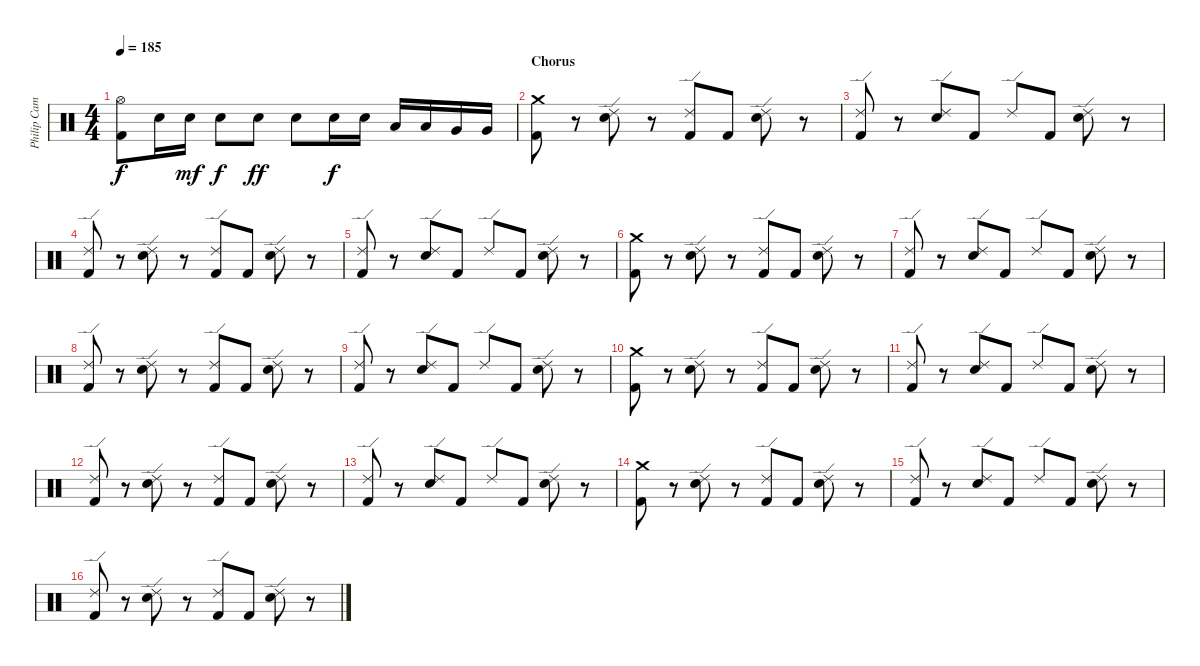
\track ("Philip Campbell" "Philip Cam") {instrument percussion}
\staff {score}
\articulation defaults
\ts (4 4)
\tempo 185
\clef neutral
\ks c
("Hi-Hat (open)" "Kick (hit) 2").8{dy f} "Electric Snare (hit)".16 "Electric Snare (hit)".16{dy mf} "Electric Snare (hit)".8{dy f} "Electric Snare (hit)".8{dy ff} "Electric Snare (hit)".8 "Electric Snare (hit)".16{dy f} "Electric Snare (hit)".16 "Low Tom (hit)".16 "Low Tom (hit)".16 "Very Low Tom (hit)".16 "Very Low Tom (hit)".16 |
\section ("" "Chorus")
("Crash medium (hit)" "Kick (hit) 2").8 r.8 ("Ride (edge) 2" "Electric Snare (hit)").8 r.8 ("Ride (edge) 2" "Kick (hit) 2").8 "Kick (hit) 2".8 ("Ride (edge) 2" "Electric Snare (hit)").8 r.8 |
("Ride (edge) 2" "Kick (hit) 2").8 r.8 ("Ride (edge) 2" "Electric Snare (hit)").8 "Kick (hit) 2".8 "Ride (edge) 2".8 "Kick (hit) 2".8 ("Ride (edge) 2" "Electric Snare (hit)").8 r.8 |
("Ride (edge) 2" "Kick (hit) 2").8 r.8 ("Ride (edge) 2" "Electric Snare (hit)").8 r.8 ("Ride (edge) 2" "Kick (hit) 2").8 "Kick (hit) 2".8 ("Ride (edge) 2" "Electric Snare (hit)").8 r.8 |
("Ride (edge) 2" "Kick (hit) 2").8 r.8 ("Ride (edge) 2" "Electric Snare (hit)").8 "Kick (hit) 2".8 "Ride (edge) 2".8 "Kick (hit) 2".8 ("Ride (edge) 2" "Electric Snare (hit)").8 r.8 |
("Crash medium (hit)" "Kick (hit) 2").8 r.8 ("Ride (edge) 2" "Electric Snare (hit)").8 r.8 ("Ride (edge) 2" "Kick (hit) 2").8 "Kick (hit) 2".8 ("Ride (edge) 2" "Electric Snare (hit)").8 r.8 |
("Ride (edge) 2" "Kick (hit) 2").8 r.8 ("Ride (edge) 2" "Electric Snare (hit)").8 "Kick (hit) 2".8 "Ride (edge) 2".8 "Kick (hit) 2".8 ("Ride (edge) 2" "Electric Snare (hit)").8 r.8 |
("Ride (edge) 2" "Kick (hit) 2").8 r.8 ("Ride (edge) 2" "Electric Snare (hit)").8 r.8 ("Ride (edge) 2" "Kick (hit) 2").8 "Kick (hit) 2".8 ("Ride (edge) 2" "Electric Snare (hit)").8 r.8 |
("Ride (edge) 2" "Kick (hit) 2").8 r.8 ("Ride (edge) 2" "Electric Snare (hit)").8 "Kick (hit) 2".8 "Ride (edge) 2".8 "Kick (hit) 2".8 ("Ride (edge) 2" "Electric Snare (hit)").8 r.8 |
("Crash medium (hit)" "Kick (hit) 2").8 r.8 ("Ride (edge) 2" "Electric Snare (hit)").8 r.8 ("Ride (edge) 2" "Kick (hit) 2").8 "Kick (hit) 2".8 ("Ride (edge) 2" "Electric Snare (hit)").8 r.8 |
("Ride (edge) 2" "Kick (hit) 2").8 r.8 ("Ride (edge) 2" "Electric Snare (hit)").8 "Kick (hit) 2".8 "Ride (edge) 2".8 "Kick (hit) 2".8 ("Ride (edge) 2" "Electric Snare (hit)").8 r.8 |
("Ride (edge) 2" "Kick (hit) 2").8 r.8 ("Ride (edge) 2" "Electric Snare (hit)").8 r.8 ("Ride (edge) 2" "Kick (hit) 2").8 "Kick (hit) 2".8 ("Ride (edge) 2" "Electric Snare (hit)").8 r.8 |
("Ride (edge) 2" "Kick (hit) 2").8 r.8 ("Ride (edge) 2" "Electric Snare (hit)").8 "Kick (hit) 2".8 "Ride (edge) 2".8 "Kick (hit) 2".8 ("Ride (edge) 2" "Electric Snare (hit)").8 r.8 |
("Crash medium (hit)" "Kick (hit) 2").8 r.8 ("Ride (edge) 2" "Electric Snare (hit)").8 r.8 ("Ride (edge) 2" "Kick (hit) 2").8 "Kick (hit) 2".8 ("Ride (edge) 2" "Electric Snare (hit)").8 r.8 |
("Ride (edge) 2" "Kick (hit) 2").8 r.8 ("Ride (edge) 2" "Electric Snare (hit)").8 "Kick (hit) 2".8 "Ride (edge) 2".8 "Kick (hit) 2".8 ("Ride (edge) 2" "Electric Snare (hit)").8 r.8 |
("Ride (edge) 2" "Kick (hit) 2").8 r.8 ("Ride (edge) 2" "Electric Snare (hit)").8 r.8 ("Ride (edge) 2" "Kick (hit) 2").8 "Kick (hit) 2".8 ("Ride (edge) 2" "Electric Snare (hit)").8 r.8
